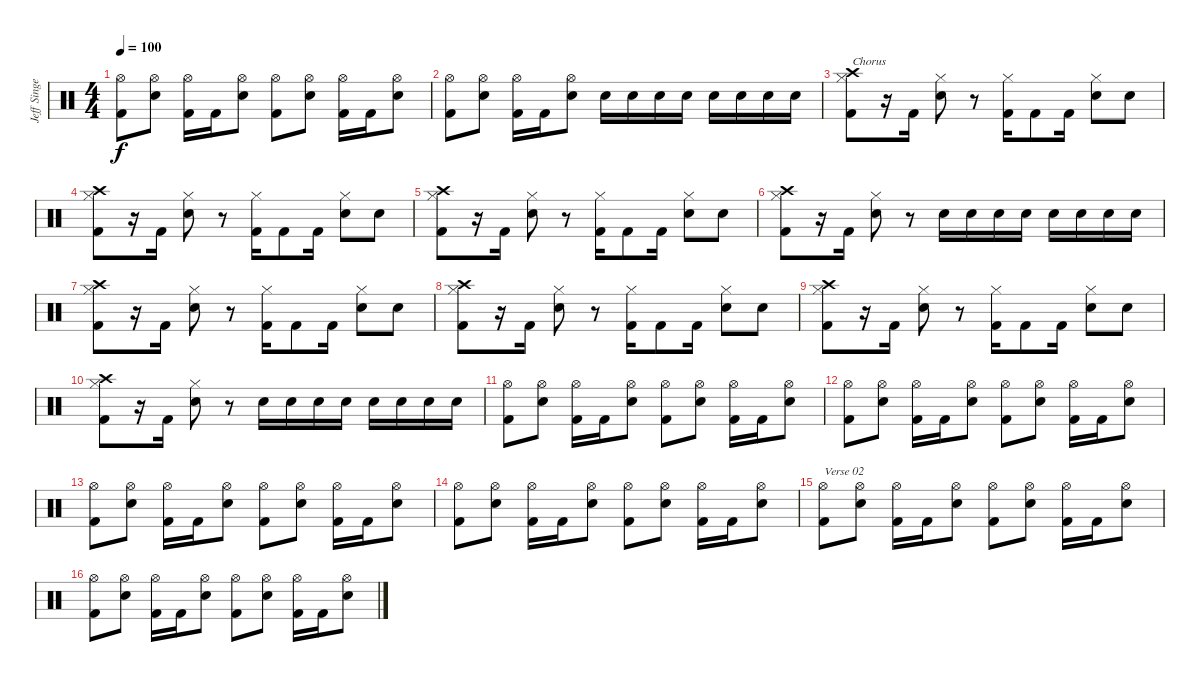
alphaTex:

\track ("Jeff Singer" "Jeff Singe") {instrument percussion}
\staff {score}
\articulation defaults
\ts (4 4)
\tempo 100
\clef neutral
\ks c
("Hi-Hat (open)" "Kick (hit) 2").8{dy f} ("Hi-Hat (open)" "Snare (hit) 2").8 ("Hi-Hat (open)" "Kick (hit) 2").16 "Kick (hit) 2".16 ("Hi-Hat (open)" "Snare (hit) 2").8 ("Hi-Hat (open)" "Kick (hit) 2").8 ("Hi-Hat (open)" "Snare (hit) 2").8 ("Hi-Hat (open)" "Kick (hit) 2").16 "Kick (hit) 2".16 ("Hi-Hat (open)" "Snare (hit) 2").8 |
("Hi-Hat (open)" "Kick (hit) 2").8 ("Hi-Hat (open)" "Snare (hit) 2").8 ("Hi-Hat (open)" "Kick (hit) 2").16 "Kick (hit) 2".16 ("Hi-Hat (open)" "Snare (hit) 2").8 "Snare (hit) 2".16 "Snare (hit) 2".16 "Snare (hit) 2".16 "Snare (hit) 2".16 "Snare (hit) 2".16 "Snare (hit) 2".16 "Snare (hit) 2".16 "Snare (hit) 2".16 |
("Hi-Hat (closed)" "Kick (hit) 2" "Crash high (hit)").8{txt "Chorus"} r.16 "Kick (hit) 2".16 ("Hi-Hat (closed)" "Snare (hit) 2").8 r.8 ("Hi-Hat (closed)" "Kick (hit) 2").16 "Kick (hit) 2".8 "Kick (hit) 2".16 ("Hi-Hat (closed)" "Snare (hit) 2").8 "Snare (hit) 2".8 |
("Hi-Hat (closed)" "Kick (hit) 2" "Crash high (hit)").8 r.16 "Kick (hit) 2".16 ("Hi-Hat (closed)" "Snare (hit) 2").8 r.8 ("Hi-Hat (closed)" "Kick (hit) 2").16 "Kick (hit) 2".8 "Kick (hit) 2".16 ("Hi-Hat (closed)" "Snare (hit) 2").8 "Snare (hit) 2".8 |
("Hi-Hat (closed)" "Kick (hit) 2" "Crash high (hit)").8 r.16 "Kick (hit) 2".16 ("Hi-Hat (closed)" "Snare (hit) 2").8 r.8 ("Hi-Hat (closed)" "Kick (hit) 2").16 "Kick (hit) 2".8 "Kick (hit) 2".16 ("Hi-Hat (closed)" "Snare (hit) 2").8 "Snare (hit) 2".8 |
("Hi-Hat (closed)" "Kick (hit) 2" "Crash high (hit)").8 r.16 "Kick (hit) 2".16 ("Hi-Hat (closed)" "Snare (hit) 2").8 r.8 "Snare (hit) 2".16 "Snare (hit) 2".16 "Snare (hit) 2".16 "Snare (hit) 2".16 "Snare (hit) 2".16 "Snare (hit) 2".16 "Snare (hit) 2".16 "Snare (hit) 2".16 |
("Hi-Hat (closed)" "Kick (hit) 2" "Crash high (hit)").8 r.16 "Kick (hit) 2".16 ("Hi-Hat (closed)" "Snare (hit) 2").8 r.8 ("Hi-Hat (closed)" "Kick (hit) 2").16 "Kick (hit) 2".8 "Kick (hit) 2".16 ("Hi-Hat (closed)" "Snare (hit) 2").8 "Snare (hit) 2".8 |
("Hi-Hat (closed)" "Kick (hit) 2" "Crash high (hit)").8 r.16 "Kick (hit) 2".16 ("Hi-Hat (closed)" "Snare (hit) 2").8 r.8 ("Hi-Hat (closed)" "Kick (hit) 2").16 "Kick (hit) 2".8 "Kick (hit) 2".16 ("Hi-Hat (closed)" "Snare (hit) 2").8 "Snare (hit) 2".8 |
("Hi-Hat (closed)" "Kick (hit) 2" "Crash high (hit)").8 r.16 "Kick (hit) 2".16 ("Hi-Hat (closed)" "Snare (hit) 2").8 r.8 ("Hi-Hat (closed)" "Kick (hit) 2").16 "Kick (hit) 2".8 "Kick (hit) 2".16 ("Hi-Hat (closed)" "Snare (hit) 2").8 "Snare (hit) 2".8 |
("Hi-Hat (closed)" "Kick (hit) 2" "Crash high (hit)").8 r.16 "Kick (hit) 2".16 ("Hi-Hat (closed)" "Snare (hit) 2").8 r.8 "Snare (hit) 2".16 "Snare (hit) 2".16 "Snare (hit) 2".16 "Snare (hit) 2".16 "Snare (hit) 2".16 "Snare (hit) 2".16 "Snare (hit) 2".16 "Snare (hit) 2".16 |
("Hi-Hat (open)" "Kick (hit) 2").8 ("Hi-Hat (open)" "Snare (hit) 2").8 ("Hi-Hat (open)" "Kick (hit) 2").16 "Kick (hit) 2".16 ("Hi-Hat (open)" "Snare (hit) 2").8 ("Hi-Hat (open)" "Kick (hit) 2").8 ("Hi-Hat (open)" "Snare (hit) 2").8 ("Hi-Hat (open)" "Kick (hit) 2").16 "Kick (hit) 2".16 ("Hi-Hat (open)" "Snare (hit) 2").8 |
("Hi-Hat (open)" "Kick (hit) 2").8 ("Hi-Hat (open)" "Snare (hit) 2").8 ("Hi-Hat (open)" "Kick (hit) 2").16 "Kick (hit) 2".16 ("Hi-Hat (open)" "Snare (hit) 2").8 ("Hi-Hat (open)" "Kick (hit) 2").8 ("Hi-Hat (open)" "Snare (hit) 2").8 ("Hi-Hat (open)" "Kick (hit) 2").16 "Kick (hit) 2".16 ("Hi-Hat (open)" "Snare (hit) 2").8 |
("Hi-Hat (open)" "Kick (hit) 2").8 ("Hi-Hat (open)" "Snare (hit) 2").8 ("Hi-Hat (open)" "Kick (hit) 2").16 "Kick (hit) 2".16 ("Hi-Hat (open)" "Snare (hit) 2").8 ("Hi-Hat (open)" "Kick (hit) 2").8 ("Hi-Hat (open)" "Snare (hit) 2").8 ("Hi-Hat (open)" "Kick (hit) 2").16 "Kick (hit) 2".16 ("Hi-Hat (open)" "Snare (hit) 2").8 |
("Hi-Hat (open)" "Kick (hit) 2").8 ("Hi-Hat (open)" "Snare (hit) 2").8 ("Hi-Hat (open)" "Kick (hit) 2").16 "Kick (hit) 2".16 ("Hi-Hat (open)" "Snare (hit) 2").8 ("Hi-Hat (open)" "Kick (hit) 2").8 ("Hi-Hat (open)" "Snare (hit) 2").8 ("Hi-Hat (open)" "Kick (hit) 2").16 "Kick (hit) 2".16 ("Hi-Hat (open)" "Snare (hit) 2").8 |
("Hi-Hat (open)" "Kick (hit) 2").8{txt "Verse 02"} ("Hi-Hat (open)" "Snare (hit) 2").8 ("Hi-Hat (open)" "Kick (hit) 2").16 "Kick (hit) 2".16 ("Hi-Hat (open)" "Snare (hit) 2").8 ("Hi-Hat (open)" "Kick (hit) 2").8 ("Hi-Hat (open)" "Snare (hit) 2").8 ("Hi-Hat (open)" "Kick (hit) 2").16 "Kick (hit) 2".16 ("Hi-Hat (open)" "Snare (hit) 2").8 |
("Hi-Hat (open)" "Kick (hit) 2").8 ("Hi-Hat (open)" "Snare (hit) 2").8 ("Hi-Hat (open)" "Kick (hit) 2").16 "Kick (hit) 2".16 ("Hi-Hat (open)" "Snare (hit) 2").8 ("Hi-Hat (open)" "Kick (hit) 2").8 ("Hi-Hat (open)" "Snare (hit) 2").8 ("Hi-Hat (open)" "Kick (hit) 2").16 "Kick (hit) 2".16 ("Hi-Hat (open)" "Snare (hit) 2").8
